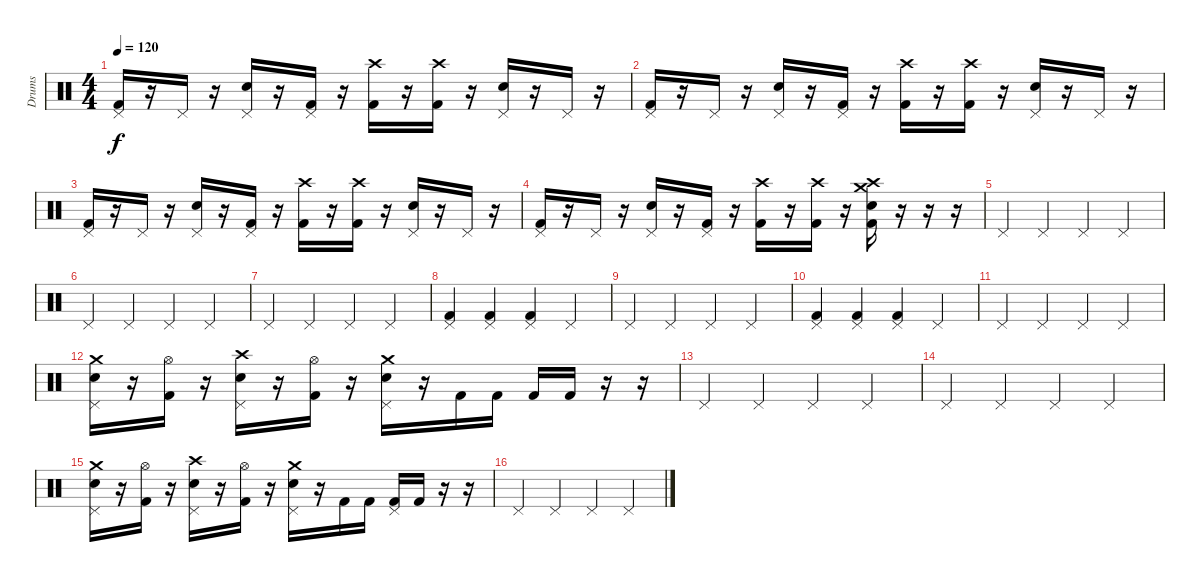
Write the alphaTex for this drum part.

\track ("Drums" "Drums") {instrument percussion}
\staff {score}
\articulation defaults
\ts (4 4)
\tempo 120
\clef neutral
\ks c
("Pedal Hi-Hat (hit)" "Kick (hit) 2").16{dy f} r.16 "Pedal Hi-Hat (hit)".16 r.16 ("Pedal Hi-Hat (hit)" "Snare (hit) 2").16 r.16 ("Pedal Hi-Hat (hit)" "Kick (hit) 2").16 r.16 ("Crash high (hit)" "Kick (hit) 2").16 r.16 ("Crash high (hit)" "Kick (hit) 2").16 r.16 ("Pedal Hi-Hat (hit)" "Snare (hit) 2").16 r.16 "Pedal Hi-Hat (hit)".16 r.16 |
("Pedal Hi-Hat (hit)" "Kick (hit) 2").16 r.16 "Pedal Hi-Hat (hit)".16 r.16 ("Pedal Hi-Hat (hit)" "Snare (hit) 2").16 r.16 ("Pedal Hi-Hat (hit)" "Kick (hit) 2").16 r.16 ("Crash high (hit)" "Kick (hit) 2").16 r.16 ("Crash high (hit)" "Kick (hit) 2").16 r.16 ("Pedal Hi-Hat (hit)" "Snare (hit) 2").16 r.16 "Pedal Hi-Hat (hit)".16 r.16 |
("Pedal Hi-Hat (hit)" "Kick (hit) 2").16 r.16 "Pedal Hi-Hat (hit)".16 r.16 ("Pedal Hi-Hat (hit)" "Snare (hit) 2").16 r.16 ("Pedal Hi-Hat (hit)" "Kick (hit) 2").16 r.16 ("Crash high (hit)" "Kick (hit) 2").16 r.16 ("Crash high (hit)" "Kick (hit) 2").16 r.16 ("Pedal Hi-Hat (hit)" "Snare (hit) 2").16 r.16 "Pedal Hi-Hat (hit)".16 r.16 |
("Pedal Hi-Hat (hit)" "Kick (hit) 2").16 r.16 "Pedal Hi-Hat (hit)".16 r.16 ("Pedal Hi-Hat (hit)" "Snare (hit) 2").16 r.16 ("Pedal Hi-Hat (hit)" "Kick (hit) 2").16 r.16 ("Crash high (hit)" "Kick (hit) 2").16 r.16 ("Crash high (hit)" "Kick (hit) 2").16 r.16 ("Crash medium (hit)" "Crash high (hit)" "Snare (hit) 2" "Kick (hit) 2").16 r.16 r.16 r.16 |
"Pedal Hi-Hat (hit)".4 "Pedal Hi-Hat (hit)".4 "Pedal Hi-Hat (hit)".4 "Pedal Hi-Hat (hit)".4 |
"Pedal Hi-Hat (hit)".4 "Pedal Hi-Hat (hit)".4 "Pedal Hi-Hat (hit)".4 "Pedal Hi-Hat (hit)".4 |
"Pedal Hi-Hat (hit)".4 "Pedal Hi-Hat (hit)".4 "Pedal Hi-Hat (hit)".4 "Pedal Hi-Hat (hit)".4 |
("Pedal Hi-Hat (hit)" "Kick (hit) 2").4 ("Pedal Hi-Hat (hit)" "Kick (hit) 2").4 ("Pedal Hi-Hat (hit)" "Kick (hit) 2").4 "Pedal Hi-Hat (hit)".4 |
"Pedal Hi-Hat (hit)".4 "Pedal Hi-Hat (hit)".4 "Pedal Hi-Hat (hit)".4 "Pedal Hi-Hat (hit)".4 |
("Pedal Hi-Hat (hit)" "Kick (hit) 2").4 ("Pedal Hi-Hat (hit)" "Kick (hit) 2").4 ("Pedal Hi-Hat (hit)" "Kick (hit) 2").4 "Pedal Hi-Hat (hit)".4 |
"Pedal Hi-Hat (hit)".4 "Pedal Hi-Hat (hit)".4 "Pedal Hi-Hat (hit)".4 "Pedal Hi-Hat (hit)".4 |
("Crash medium (hit)" "Pedal Hi-Hat (hit)" "Snare (hit) 2").16 r.16 ("Hi-Hat (open)" "Kick (hit) 2").16 r.16 ("Crash high (hit)" "Pedal Hi-Hat (hit)" "Snare (hit) 2").16 r.16 ("Hi-Hat (open)" "Kick (hit) 2").16 r.16 ("Crash medium (hit)" "Pedal Hi-Hat (hit)" "Snare (hit) 2").16 r.16 "Kick (hit) 2".16 "Kick (hit) 2".16 "Kick (hit) 2".16 "Kick (hit) 2".16 r.16 r.16 |
"Pedal Hi-Hat (hit)".4 "Pedal Hi-Hat (hit)".4 "Pedal Hi-Hat (hit)".4 "Pedal Hi-Hat (hit)".4 |
"Pedal Hi-Hat (hit)".4 "Pedal Hi-Hat (hit)".4 "Pedal Hi-Hat (hit)".4 "Pedal Hi-Hat (hit)".4 |
("Crash medium (hit)" "Pedal Hi-Hat (hit)" "Snare (hit) 2").16 r.16 ("Hi-Hat (open)" "Kick (hit) 2").16 r.16 ("Crash high (hit)" "Pedal Hi-Hat (hit)" "Snare (hit) 2").16 r.16 ("Hi-Hat (open)" "Kick (hit) 2").16 r.16 ("Crash medium (hit)" "Pedal Hi-Hat (hit)" "Snare (hit) 2").16 r.16 "Kick (hit) 2".16 "Kick (hit) 2".16 ("Pedal Hi-Hat (hit)" "Kick (hit) 2").16 "Kick (hit) 2".16 r.16 r.16 |
"Pedal Hi-Hat (hit)".4 "Pedal Hi-Hat (hit)".4 "Pedal Hi-Hat (hit)".4 "Pedal Hi-Hat (hit)".4
